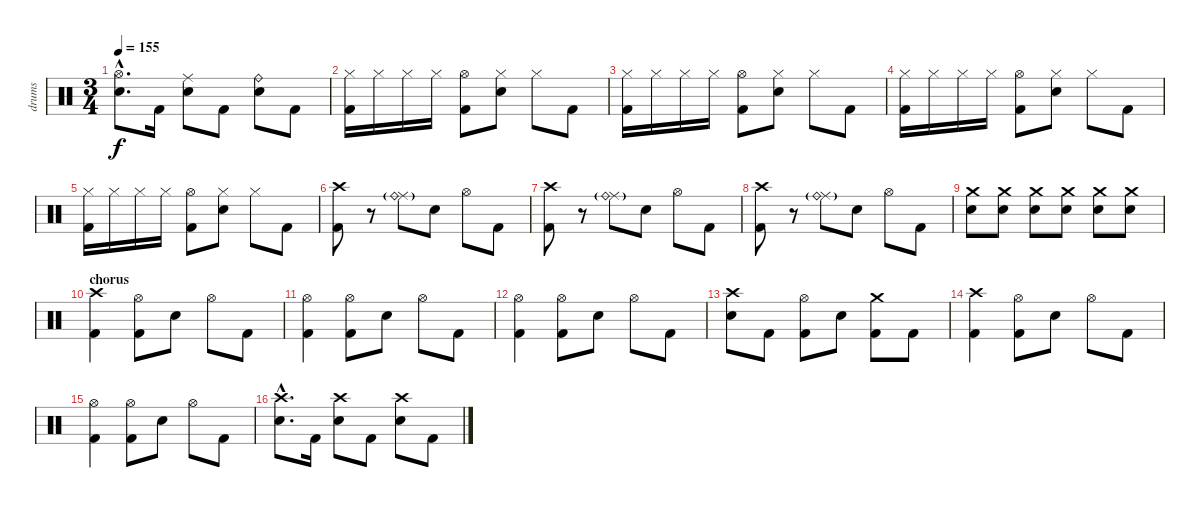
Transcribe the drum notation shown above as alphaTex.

\track ("drums" "drums") {instrument percussion}
\staff {score}
\articulation defaults
\ts (3 4)
\tempo 155
\clef neutral
\ks c
("Hi-Hat (open)"{hac} "Electric Snare (hit)"{hac}).8{d dy f} "Kick (hit) 2".16 ("Ride (middle)" "Electric Snare (hit)").8 "Kick (hit) 2".8 ("Ride (bell)" "Electric Snare (hit)").8 "Kick (hit) 2".8 |
("Hi-Hat (closed)" "Kick (hit) 2").16 "Hi-Hat (closed)".16 "Hi-Hat (closed)".16 "Hi-Hat (closed)".16 ("Hi-Hat (open)" "Kick (hit) 2").8 ("Hi-Hat (closed)" "Electric Snare (hit)").8 "Hi-Hat (closed)".8 "Kick (hit) 2".8 |
("Hi-Hat (closed)" "Kick (hit) 2").16 "Hi-Hat (closed)".16 "Hi-Hat (closed)".16 "Hi-Hat (closed)".16 ("Hi-Hat (open)" "Kick (hit) 2").8 ("Hi-Hat (closed)" "Electric Snare (hit)").8 "Hi-Hat (closed)".8 "Kick (hit) 2".8 |
("Hi-Hat (closed)" "Kick (hit) 2").16 "Hi-Hat (closed)".16 "Hi-Hat (closed)".16 "Hi-Hat (closed)".16 ("Hi-Hat (open)" "Kick (hit) 2").8 ("Hi-Hat (closed)" "Electric Snare (hit)").8 "Hi-Hat (closed)".8 "Kick (hit) 2".8 |
("Hi-Hat (closed)" "Kick (hit) 2").16 "Hi-Hat (closed)".16 "Hi-Hat (closed)".16 "Hi-Hat (closed)".16 ("Hi-Hat (open)" "Kick (hit) 2").8 ("Hi-Hat (closed)" "Electric Snare (hit)").8 "Hi-Hat (closed)".8 "Kick (hit) 2".8 |
("Crash high (hit)" "Kick (hit) 2").8 r.8 ("Ride (middle)" "Ride (bell)"{g}).8 "Electric Snare (hit)".8 "Hi-Hat (open)".8 "Kick (hit) 2".8 |
("Crash high (hit)" "Kick (hit) 2").8 r.8 ("Ride (middle)" "Ride (bell)"{g}).8 "Electric Snare (hit)".8 "Hi-Hat (open)".8 "Kick (hit) 2".8 |
("Crash high (hit)" "Kick (hit) 2").8 r.8 ("Ride (middle)" "Ride (bell)"{g}).8 "Electric Snare (hit)".8 "Hi-Hat (open)".8 "Kick (hit) 2".8 |
("Crash medium (hit)" "Electric Snare (hit)").8 ("Crash medium (hit)" "Electric Snare (hit)").8 ("Crash medium (hit)" "Electric Snare (hit)").8 ("Crash medium (hit)" "Electric Snare (hit)").8 ("Crash medium (hit)" "Electric Snare (hit)").8 ("Crash medium (hit)" "Electric Snare (hit)").8 |
\section ("" "chorus")
("Crash high (hit)" "Kick (hit) 2").4 ("Hi-Hat (open)" "Kick (hit) 2").8 "Electric Snare (hit)".8 "Hi-Hat (open)".8 "Kick (hit) 2".8 |
("Hi-Hat (open)" "Kick (hit) 2").4 ("Hi-Hat (open)" "Kick (hit) 2").8 "Electric Snare (hit)".8 "Hi-Hat (open)".8 "Kick (hit) 2".8 |
("Hi-Hat (open)" "Kick (hit) 2").4 ("Hi-Hat (open)" "Kick (hit) 2").8 "Electric Snare (hit)".8 "Hi-Hat (open)".8 "Kick (hit) 2".8 |
("Crash high (hit)" "Electric Snare (hit)").8 "Kick (hit) 2".8 ("Hi-Hat (open)" "Kick (hit) 2").8 "Electric Snare (hit)".8 ("Crash medium (hit)" "Kick (hit) 2").8 "Kick (hit) 2".8 |
("Crash high (hit)" "Kick (hit) 2").4 ("Hi-Hat (open)" "Kick (hit) 2").8 "Electric Snare (hit)".8 "Hi-Hat (open)".8 "Kick (hit) 2".8 |
("Hi-Hat (open)" "Kick (hit) 2").4 ("Hi-Hat (open)" "Kick (hit) 2").8 "Electric Snare (hit)".8 "Hi-Hat (open)".8 "Kick (hit) 2".8 |
("Crash high (hit)"{hac} "Electric Snare (hit)"{hac}).8{d} "Kick (hit) 2".16 ("Crash high (hit)" "Electric Snare (hit)").8 "Kick (hit) 2".8 ("Crash high (hit)" "Electric Snare (hit)").8 "Kick (hit) 2".8
